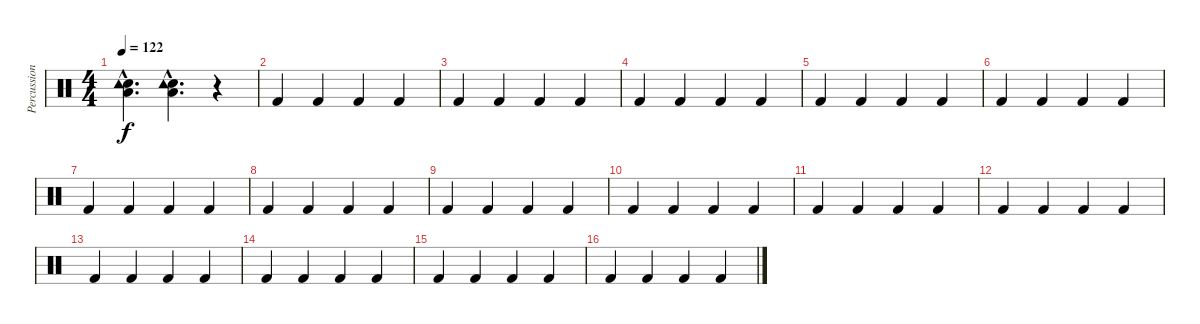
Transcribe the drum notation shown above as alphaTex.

\track ("Percussion" "Percussion") {instrument percussion}
\staff {score}
\articulation defaults
\ts (4 4)
\tempo 122
\clef neutral
\ks c
("Low Tom (hit)"{hac} "Snare (hit) 2"{hac} "Tambourine (hit)"{hac}).4{d dy f} ("Low Tom (hit)"{hac} "Snare (hit) 2"{hac} "Tambourine (hit)"{hac}).4{d} r.4 |
"Kick (hit) 2".4 "Kick (hit) 2".4 "Kick (hit) 2".4 "Kick (hit) 2".4 |
"Kick (hit) 2".4 "Kick (hit) 2".4 "Kick (hit) 2".4 "Kick (hit) 2".4 |
"Kick (hit) 2".4 "Kick (hit) 2".4 "Kick (hit) 2".4 "Kick (hit) 2".4 |
"Kick (hit) 2".4 "Kick (hit) 2".4 "Kick (hit) 2".4 "Kick (hit) 2".4 |
"Kick (hit) 2".4 "Kick (hit) 2".4 "Kick (hit) 2".4 "Kick (hit) 2".4 |
"Kick (hit) 2".4 "Kick (hit) 2".4 "Kick (hit) 2".4 "Kick (hit) 2".4 |
"Kick (hit) 2".4 "Kick (hit) 2".4 "Kick (hit) 2".4 "Kick (hit) 2".4 |
"Kick (hit) 2".4 "Kick (hit) 2".4 "Kick (hit) 2".4 "Kick (hit) 2".4 |
"Kick (hit) 2".4 "Kick (hit) 2".4 "Kick (hit) 2".4 "Kick (hit) 2".4 |
"Kick (hit) 2".4 "Kick (hit) 2".4 "Kick (hit) 2".4 "Kick (hit) 2".4 |
"Kick (hit) 2".4 "Kick (hit) 2".4 "Kick (hit) 2".4 "Kick (hit) 2".4 |
"Kick (hit) 2".4 "Kick (hit) 2".4 "Kick (hit) 2".4 "Kick (hit) 2".4 |
"Kick (hit) 2".4 "Kick (hit) 2".4 "Kick (hit) 2".4 "Kick (hit) 2".4 |
"Kick (hit) 2".4 "Kick (hit) 2".4 "Kick (hit) 2".4 "Kick (hit) 2".4 |
"Kick (hit) 2".4 "Kick (hit) 2".4 "Kick (hit) 2".4 "Kick (hit) 2".4
